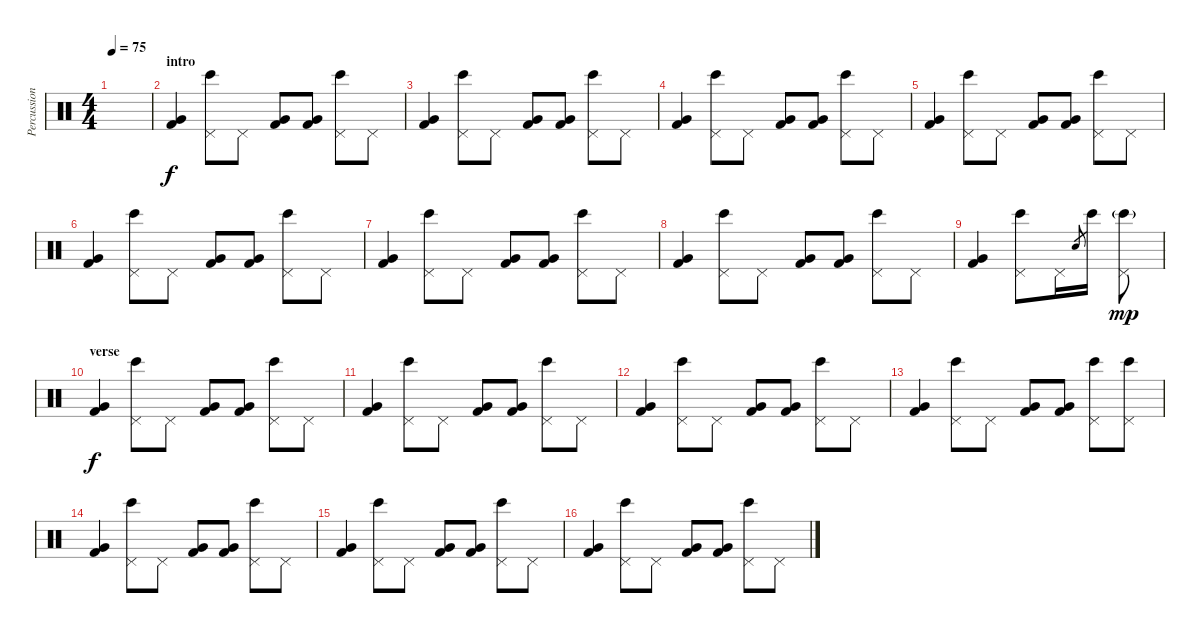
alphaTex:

\track ("Percussion" "Percussion") {instrument percussion}
\staff {score}
\articulation defaults
\ts (4 4)
\tempo 75
\clef neutral
\ks c
|
\section ("" "intro")
("Very Low Tom (hit)" "Kick (hit) 2").4 ("Pedal Hi-Hat (hit)" "Bongo High (hit)").8 "Pedal Hi-Hat (hit)".8 ("Very Low Tom (hit)" "Kick (hit) 2").8 ("Very Low Tom (hit)" "Kick (hit) 2").8 ("Pedal Hi-Hat (hit)" "Bongo High (hit)").8 "Pedal Hi-Hat (hit)".8 |
("Very Low Tom (hit)" "Kick (hit) 2").4 ("Pedal Hi-Hat (hit)" "Bongo High (hit)").8 "Pedal Hi-Hat (hit)".8 ("Very Low Tom (hit)" "Kick (hit) 2").8 ("Very Low Tom (hit)" "Kick (hit) 2").8 ("Pedal Hi-Hat (hit)" "Bongo High (hit)").8 "Pedal Hi-Hat (hit)".8 |
("Very Low Tom (hit)" "Kick (hit) 2").4 ("Pedal Hi-Hat (hit)" "Bongo High (hit)").8 "Pedal Hi-Hat (hit)".8 ("Very Low Tom (hit)" "Kick (hit) 2").8 ("Very Low Tom (hit)" "Kick (hit) 2").8 ("Pedal Hi-Hat (hit)" "Bongo High (hit)").8 "Pedal Hi-Hat (hit)".8 |
("Very Low Tom (hit)" "Kick (hit) 2").4 ("Pedal Hi-Hat (hit)" "Bongo High (hit)").8 "Pedal Hi-Hat (hit)".8 ("Very Low Tom (hit)" "Kick (hit) 2").8 ("Very Low Tom (hit)" "Kick (hit) 2").8 ("Pedal Hi-Hat (hit)" "Bongo High (hit)").8 "Pedal Hi-Hat (hit)".8 |
("Very Low Tom (hit)" "Kick (hit) 2").4 ("Pedal Hi-Hat (hit)" "Bongo High (hit)").8 "Pedal Hi-Hat (hit)".8 ("Very Low Tom (hit)" "Kick (hit) 2").8 ("Very Low Tom (hit)" "Kick (hit) 2").8 ("Pedal Hi-Hat (hit)" "Bongo High (hit)").8 "Pedal Hi-Hat (hit)".8 |
("Very Low Tom (hit)" "Kick (hit) 2").4 ("Pedal Hi-Hat (hit)" "Bongo High (hit)").8 "Pedal Hi-Hat (hit)".8 ("Very Low Tom (hit)" "Kick (hit) 2").8 ("Very Low Tom (hit)" "Kick (hit) 2").8 ("Pedal Hi-Hat (hit)" "Bongo High (hit)").8 "Pedal Hi-Hat (hit)".8 |
("Very Low Tom (hit)" "Kick (hit) 2").4 ("Pedal Hi-Hat (hit)" "Bongo High (hit)").8 "Pedal Hi-Hat (hit)".8 ("Very Low Tom (hit)" "Kick (hit) 2").8 ("Very Low Tom (hit)" "Kick (hit) 2").8 ("Pedal Hi-Hat (hit)" "Bongo High (hit)").8 "Pedal Hi-Hat (hit)".8 |
("Very Low Tom (hit)" "Kick (hit) 2").4 ("Pedal Hi-Hat (hit)" "Bongo High (hit)").8 "Pedal Hi-Hat (hit)".16 "Snare (hit)".8{gr} "Bongo High (hit)".16 ("Pedal Hi-Hat (hit)" "Bongo High (hit)"{g}).8{dy mp} |
\section ("" "verse")
("Very Low Tom (hit)" "Kick (hit) 2").4{dy f} ("Pedal Hi-Hat (hit)" "Bongo High (hit)").8 "Pedal Hi-Hat (hit)".8 ("Very Low Tom (hit)" "Kick (hit) 2").8 ("Very Low Tom (hit)" "Kick (hit) 2").8 ("Pedal Hi-Hat (hit)" "Bongo High (hit)").8 "Pedal Hi-Hat (hit)".8 |
("Very Low Tom (hit)" "Kick (hit) 2").4 ("Pedal Hi-Hat (hit)" "Bongo High (hit)").8 "Pedal Hi-Hat (hit)".8 ("Very Low Tom (hit)" "Kick (hit) 2").8 ("Very Low Tom (hit)" "Kick (hit) 2").8 ("Pedal Hi-Hat (hit)" "Bongo High (hit)").8 "Pedal Hi-Hat (hit)".8 |
("Very Low Tom (hit)" "Kick (hit) 2").4 ("Pedal Hi-Hat (hit)" "Bongo High (hit)").8 "Pedal Hi-Hat (hit)".8 ("Very Low Tom (hit)" "Kick (hit) 2").8 ("Very Low Tom (hit)" "Kick (hit) 2").8 ("Pedal Hi-Hat (hit)" "Bongo High (hit)").8 "Pedal Hi-Hat (hit)".8 |
("Very Low Tom (hit)" "Kick (hit) 2").4 ("Pedal Hi-Hat (hit)" "Bongo High (hit)").8 "Pedal Hi-Hat (hit)".8 ("Very Low Tom (hit)" "Kick (hit) 2").8 ("Very Low Tom (hit)" "Kick (hit) 2").8 ("Pedal Hi-Hat (hit)" "Bongo High (hit)").8 ("Pedal Hi-Hat (hit)" "Bongo High (hit)").8 |
\section ("" "")
("Very Low Tom (hit)" "Kick (hit) 2").4 ("Pedal Hi-Hat (hit)" "Bongo High (hit)").8 "Pedal Hi-Hat (hit)".8 ("Very Low Tom (hit)" "Kick (hit) 2").8 ("Very Low Tom (hit)" "Kick (hit) 2").8 ("Pedal Hi-Hat (hit)" "Bongo High (hit)").8 "Pedal Hi-Hat (hit)".8 |
("Very Low Tom (hit)" "Kick (hit) 2").4 ("Pedal Hi-Hat (hit)" "Bongo High (hit)").8 "Pedal Hi-Hat (hit)".8 ("Very Low Tom (hit)" "Kick (hit) 2").8 ("Very Low Tom (hit)" "Kick (hit) 2").8 ("Pedal Hi-Hat (hit)" "Bongo High (hit)").8 "Pedal Hi-Hat (hit)".8 |
("Very Low Tom (hit)" "Kick (hit) 2").4 ("Pedal Hi-Hat (hit)" "Bongo High (hit)").8 "Pedal Hi-Hat (hit)".8 ("Very Low Tom (hit)" "Kick (hit) 2").8 ("Very Low Tom (hit)" "Kick (hit) 2").8 ("Pedal Hi-Hat (hit)" "Bongo High (hit)").8 "Pedal Hi-Hat (hit)".8
